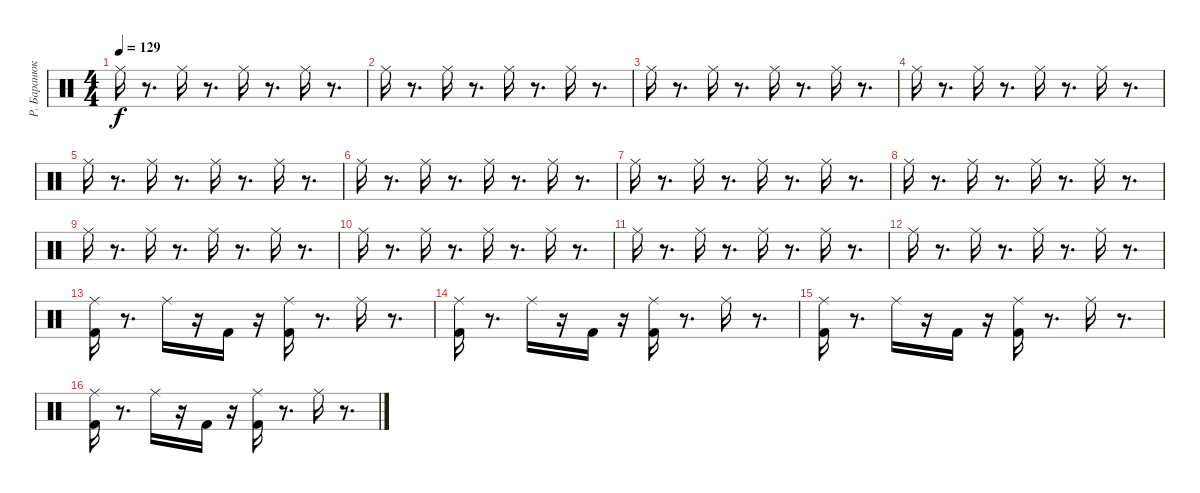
\track ("Р. Баранюк" "Р. Баранюк") {instrument percussion}
\staff {score}
\articulation defaults
\ts (4 4)
\tempo 129
\clef neutral
\ks c "Ride (middle)".16{dy f}
r.8{d} "Ride (middle)".16 r.8{d} "Ride (middle)".16 r.8{d} "Ride (middle)".16 r.8{d} |
"Ride (middle)".16 r.8{d} "Ride (middle)".16 r.8{d} "Ride (middle)".16 r.8{d} "Ride (middle)".16 r.8{d} |
"Ride (middle)".16 r.8{d} "Ride (middle)".16 r.8{d} "Ride (middle)".16 r.8{d} "Ride (middle)".16 r.8{d} |
"Ride (middle)".16 r.8{d} "Ride (middle)".16 r.8{d} "Ride (middle)".16 r.8{d} "Ride (middle)".16 r.8{d} |
"Ride (middle)".16 r.8{d} "Ride (middle)".16 r.8{d} "Ride (middle)".16 r.8{d} "Ride (middle)".16 r.8{d} |
"Ride (middle)".16 r.8{d} "Ride (middle)".16 r.8{d} "Ride (middle)".16 r.8{d} "Ride (middle)".16 r.8{d} |
"Ride (middle)".16 r.8{d} "Ride (middle)".16 r.8{d} "Ride (middle)".16 r.8{d} "Ride (middle)".16 r.8{d} |
"Ride (middle)".16 r.8{d} "Ride (middle)".16 r.8{d} "Ride (middle)".16 r.8{d} "Ride (middle)".16 r.8{d} |
"Ride (middle)".16 r.8{d} "Ride (middle)".16 r.8{d} "Ride (middle)".16 r.8{d} "Ride (middle)".16 r.8{d} |
"Ride (middle)".16 r.8{d} "Ride (middle)".16 r.8{d} "Ride (middle)".16 r.8{d} "Ride (middle)".16 r.8{d} |
"Ride (middle)".16 r.8{d} "Ride (middle)".16 r.8{d} "Ride (middle)".16 r.8{d} "Ride (middle)".16 r.8{d} |
"Ride (middle)".16 r.8{d} "Ride (middle)".16 r.8{d} "Ride (middle)".16 r.8{d} "Ride (middle)".16 r.8{d} |
("Kick (hit) 2" "Ride (middle)").16 r.8{d} "Ride (middle)".16 r.16 "Kick (hit) 2".16 r.16 ("Kick (hit) 2" "Ride (middle)").16 r.8{d} "Ride (middle)".16 r.8{d} |
("Kick (hit) 2" "Ride (middle)").16 r.8{d} "Ride (middle)".16 r.16 "Kick (hit) 2".16 r.16 ("Kick (hit) 2" "Ride (middle)").16 r.8{d} "Ride (middle)".16 r.8{d} |
("Kick (hit) 2" "Ride (middle)").16 r.8{d} "Ride (middle)".16 r.16 "Kick (hit) 2".16 r.16 ("Kick (hit) 2" "Ride (middle)").16 r.8{d} "Ride (middle)".16 r.8{d} |
("Kick (hit) 2" "Ride (middle)").16 r.8{d} "Ride (middle)".16 r.16 "Kick (hit) 2".16 r.16 ("Kick (hit) 2" "Ride (middle)").16 r.8{d} "Ride (middle)".16 r.8{d}
